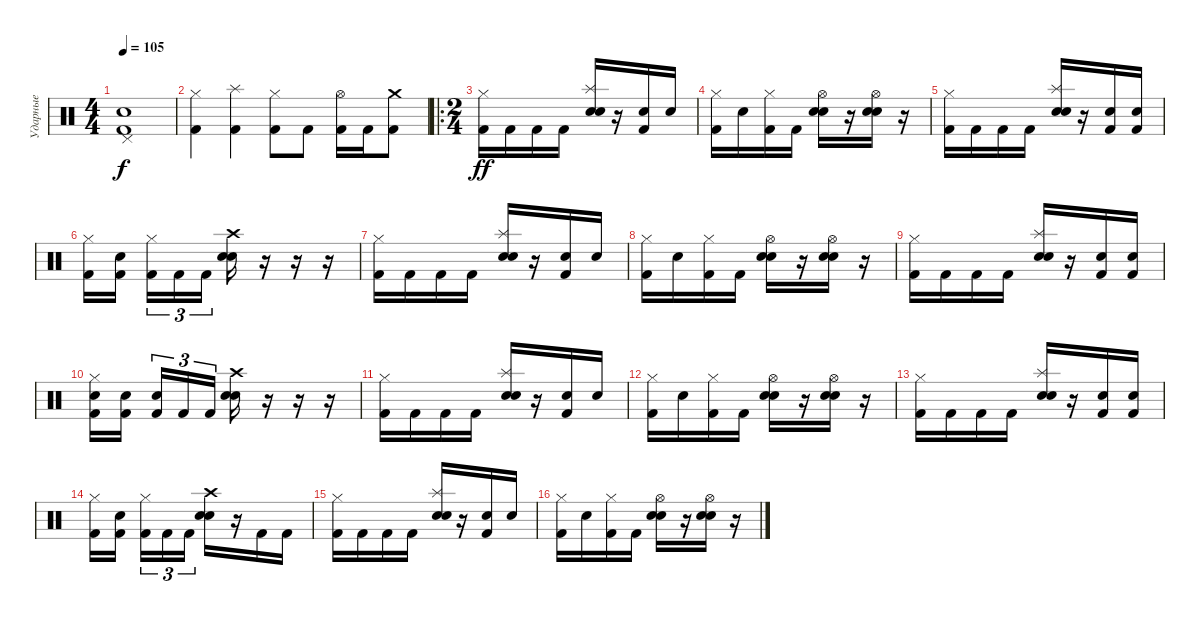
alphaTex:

\track ("Ударные" "Ударные") {instrument percussion}
\staff {score}
\articulation defaults
\ts (4 4)
\tempo 105
\clef neutral
\ks c
("Kick (hit) 2" "Electric Snare (hit)" "Pedal Hi-Hat (hit)").1{dy f} |
("Hi-Hat (closed)" "Kick (hit) 2").4 ("Splash (hit)" "Kick (hit) 2").4 ("Hi-Hat (closed)" "Kick (hit) 2").8 "Kick (hit) 2".8 ("Hi-Hat (open)" "Kick (hit) 2").16 "Kick (hit) 2".16 ("Crash medium (hit)" "Kick (hit) 2").8 |
\ro
\ts (2 4)
("Hi-Hat (closed)" "Kick (hit) 2").16{dy ff} "Kick (hit) 2".16 "Kick (hit) 2".16 "Kick (hit) 2".16 ("Splash (hit)" "Snare (hit) 2" "Electric Snare (hit)").16 r.16 ("Kick (hit) 2" "Electric Snare (hit)").16 "Electric Snare (hit)".16 |
("Hi-Hat (closed)" "Kick (hit) 2").16 "Electric Snare (hit)".16 ("Hi-Hat (closed)" "Kick (hit) 2").16 "Kick (hit) 2".16 ("Hi-Hat (open)" "Snare (hit) 2" "Electric Snare (hit)").16 r.16 ("Hi-Hat (open)" "Snare (hit) 2" "Electric Snare (hit)").16 r.16 |
("Hi-Hat (closed)" "Kick (hit) 2").16 "Kick (hit) 2".16 "Kick (hit) 2".16 "Kick (hit) 2".16 ("Splash (hit)" "Snare (hit) 2" "Electric Snare (hit)").16 r.16 ("Kick (hit) 2" "Electric Snare (hit)").16 ("Kick (hit) 2" "Electric Snare (hit)").16 |
("Hi-Hat (closed)" "Kick (hit) 2").16 ("Kick (hit) 2" "Electric Snare (hit)").16 ("Hi-Hat (closed)" "Kick (hit) 2").16{tu (3 2)} "Kick (hit) 2".16{tu (3 2)} "Kick (hit) 2".16{tu (3 2)} ("Crash high (hit)" "Snare (hit) 2" "Electric Snare (hit)").16 r.16 r.16 r.16 |
("Hi-Hat (closed)" "Kick (hit) 2").16 "Kick (hit) 2".16 "Kick (hit) 2".16 "Kick (hit) 2".16 ("Splash (hit)" "Snare (hit) 2" "Electric Snare (hit)").16 r.16 ("Kick (hit) 2" "Electric Snare (hit)").16 "Electric Snare (hit)".16 |
("Hi-Hat (closed)" "Kick (hit) 2").16 "Electric Snare (hit)".16 ("Hi-Hat (closed)" "Kick (hit) 2").16 "Kick (hit) 2".16 ("Hi-Hat (open)" "Snare (hit) 2" "Electric Snare (hit)").16 r.16 ("Hi-Hat (open)" "Snare (hit) 2" "Electric Snare (hit)").16 r.16 |
("Hi-Hat (closed)" "Kick (hit) 2").16 "Kick (hit) 2".16 "Kick (hit) 2".16 "Kick (hit) 2".16 ("Splash (hit)" "Snare (hit) 2" "Electric Snare (hit)").16 r.16 ("Kick (hit) 2" "Electric Snare (hit)").16 ("Kick (hit) 2" "Electric Snare (hit)").16 |
("Hi-Hat (closed)" "Kick (hit) 2" "Electric Snare (hit)").16 ("Kick (hit) 2" "Electric Snare (hit)").16 ("Kick (hit) 2" "Electric Snare (hit)").16{tu (3 2)} "Kick (hit) 2".16{tu (3 2)} "Kick (hit) 2".16{tu (3 2)} ("Crash high (hit)" "Snare (hit) 2" "Electric Snare (hit)").16 r.16 r.16 r.16 |
("Hi-Hat (closed)" "Kick (hit) 2").16 "Kick (hit) 2".16 "Kick (hit) 2".16 "Kick (hit) 2".16 ("Splash (hit)" "Snare (hit) 2" "Electric Snare (hit)").16 r.16 ("Kick (hit) 2" "Electric Snare (hit)").16 "Electric Snare (hit)".16 |
("Hi-Hat (closed)" "Kick (hit) 2").16 "Electric Snare (hit)".16 ("Hi-Hat (closed)" "Kick (hit) 2").16 "Kick (hit) 2".16 ("Hi-Hat (open)" "Snare (hit) 2" "Electric Snare (hit)").16 r.16 ("Hi-Hat (open)" "Snare (hit) 2" "Electric Snare (hit)").16 r.16 |
("Hi-Hat (closed)" "Kick (hit) 2").16 "Kick (hit) 2".16 "Kick (hit) 2".16 "Kick (hit) 2".16 ("Splash (hit)" "Snare (hit) 2" "Electric Snare (hit)").16 r.16 ("Kick (hit) 2" "Electric Snare (hit)").16 ("Kick (hit) 2" "Electric Snare (hit)").16 |
("Hi-Hat (closed)" "Kick (hit) 2").16 ("Kick (hit) 2" "Electric Snare (hit)").16 ("Hi-Hat (closed)" "Kick (hit) 2").16{tu (3 2)} "Kick (hit) 2".16{tu (3 2)} "Kick (hit) 2".16{tu (3 2)} ("Crash high (hit)" "Snare (hit) 2" "Electric Snare (hit)").16 r.16 "Kick (hit) 2".16 "Kick (hit) 2".16 |
("Hi-Hat (closed)" "Kick (hit) 2").16 "Kick (hit) 2".16 "Kick (hit) 2".16 "Kick (hit) 2".16 ("Splash (hit)" "Snare (hit) 2" "Electric Snare (hit)").16 r.16 ("Kick (hit) 2" "Electric Snare (hit)").16 "Electric Snare (hit)".16 |
("Hi-Hat (closed)" "Kick (hit) 2").16 "Electric Snare (hit)".16 ("Hi-Hat (closed)" "Kick (hit) 2").16 "Kick (hit) 2".16 ("Hi-Hat (open)" "Snare (hit) 2" "Electric Snare (hit)").16 r.16 ("Hi-Hat (open)" "Snare (hit) 2" "Electric Snare (hit)").16 r.16
